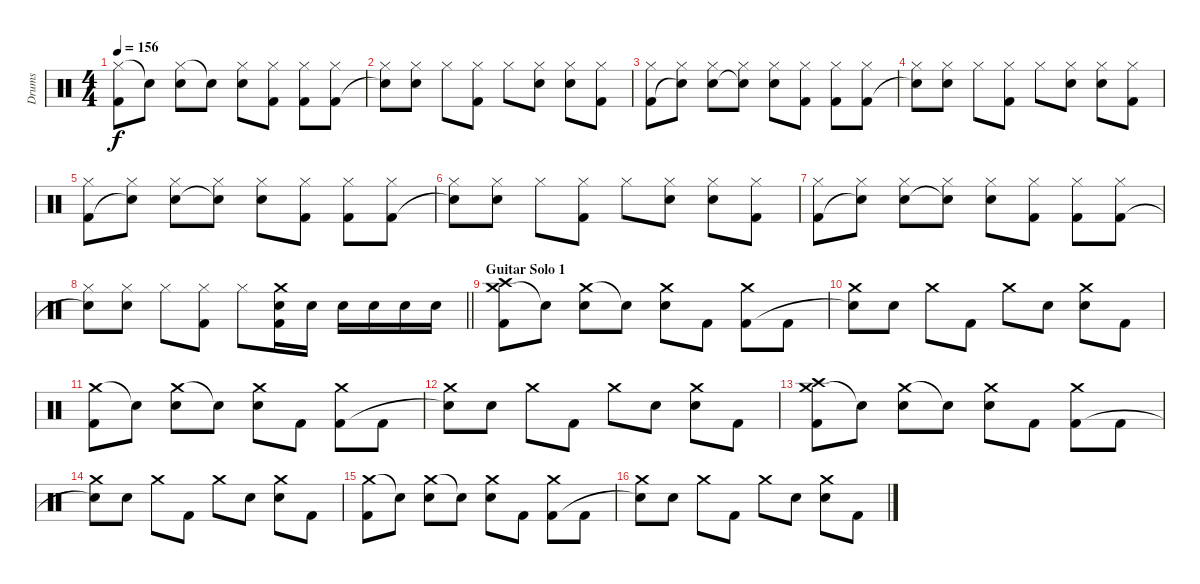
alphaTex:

\track ("Drums" "Drums") {instrument percussion}
\staff {score}
\articulation defaults
\ts (4 4)
\tempo 156
\clef neutral
\ks c
("Hi-Hat (closed)" "Kick (hit) 2").8{dy f} "Snare (hit)"{t}.8 ("Hi-Hat (closed)" "Electric Snare (hit)").8 "Snare (hit)"{t}.8 ("Hi-Hat (closed)" "Electric Snare (hit)").8 ("Hi-Hat (closed)" "Kick (hit) 2").8 ("Hi-Hat (closed)" "Kick (hit) 2").8 ("Hi-Hat (closed)" "Kick (hit) 2").8 |
("Hi-Hat (closed)" "Snare (hit)"{t}).8 ("Hi-Hat (closed)" "Electric Snare (hit)").8 "Hi-Hat (closed)".8 ("Hi-Hat (closed)" "Kick (hit) 2").8 "Hi-Hat (closed)".8 ("Hi-Hat (closed)" "Electric Snare (hit)").8 ("Hi-Hat (closed)" "Electric Snare (hit)").8 ("Hi-Hat (closed)" "Kick (hit) 2").8 |
("Hi-Hat (closed)" "Kick (hit) 2").8 ("Hi-Hat (closed)" "Snare (hit)"{t}).8 ("Hi-Hat (closed)" "Electric Snare (hit)").8 ("Hi-Hat (closed)" "Snare (hit)"{t}).8 ("Hi-Hat (closed)" "Electric Snare (hit)").8 ("Hi-Hat (closed)" "Kick (hit) 2").8 ("Hi-Hat (closed)" "Kick (hit) 2").8 ("Hi-Hat (closed)" "Kick (hit) 2").8 |
("Hi-Hat (closed)" "Snare (hit)"{t}).8 ("Hi-Hat (closed)" "Electric Snare (hit)").8 "Hi-Hat (closed)".8 ("Hi-Hat (closed)" "Kick (hit) 2").8 "Hi-Hat (closed)".8 ("Hi-Hat (closed)" "Electric Snare (hit)").8 ("Hi-Hat (closed)" "Electric Snare (hit)").8 ("Hi-Hat (closed)" "Kick (hit) 2").8 |
("Hi-Hat (closed)" "Kick (hit) 2").8 ("Hi-Hat (closed)" "Snare (hit)"{t}).8 ("Hi-Hat (closed)" "Electric Snare (hit)").8 ("Hi-Hat (closed)" "Snare (hit)"{t}).8 ("Hi-Hat (closed)" "Electric Snare (hit)").8 ("Hi-Hat (closed)" "Kick (hit) 2").8 ("Hi-Hat (closed)" "Kick (hit) 2").8 ("Hi-Hat (closed)" "Kick (hit) 2").8 |
("Hi-Hat (closed)" "Snare (hit)"{t}).8 ("Hi-Hat (closed)" "Electric Snare (hit)").8 "Hi-Hat (closed)".8 ("Hi-Hat (closed)" "Kick (hit) 2").8 "Hi-Hat (closed)".8 ("Hi-Hat (closed)" "Electric Snare (hit)").8 ("Hi-Hat (closed)" "Electric Snare (hit)").8 ("Hi-Hat (closed)" "Kick (hit) 2").8 |
("Hi-Hat (closed)" "Kick (hit) 2").8 ("Hi-Hat (closed)" "Snare (hit)"{t}).8 ("Hi-Hat (closed)" "Electric Snare (hit)").8 ("Hi-Hat (closed)" "Snare (hit)"{t}).8 ("Hi-Hat (closed)" "Electric Snare (hit)").8 ("Hi-Hat (closed)" "Kick (hit) 2").8 ("Hi-Hat (closed)" "Kick (hit) 2").8 ("Hi-Hat (closed)" "Kick (hit) 2").8 |
\barLineRight lightlight
("Hi-Hat (closed)" "Snare (hit)"{t}).8 ("Hi-Hat (closed)" "Electric Snare (hit)").8 "Hi-Hat (closed)".8 ("Hi-Hat (closed)" "Kick (hit) 2").8 "Hi-Hat (closed)".8 ("Crash medium (hit)" "Electric Snare (hit)" "Kick (hit) 2").16 "Electric Snare (hit)".16 "Electric Snare (hit)".16 "Electric Snare (hit)".16 "Electric Snare (hit)".16 "Electric Snare (hit)".16 |
\section ("" "Guitar Solo 1")
("Crash medium (hit)" "Crash high (hit)" "Kick (hit) 2").8 "Snare (hit)"{t}.8 ("Crash medium (hit)" "Electric Snare (hit)").8 "Snare (hit)"{t}.8 ("Crash medium (hit)" "Electric Snare (hit)").8 "Kick (hit) 2".8 ("Crash medium (hit)" "Kick (hit) 2").8 "Kick (hit) 2".8 |
("Crash medium (hit)" "Snare (hit)"{t}).8 "Electric Snare (hit)".8 "Crash medium (hit)".8 "Kick (hit) 2".8 "Crash medium (hit)".8 "Electric Snare (hit)".8 ("Crash medium (hit)" "Electric Snare (hit)").8 "Kick (hit) 2".8 |
("Crash medium (hit)" "Kick (hit) 2").8 "Snare (hit)"{t}.8 ("Crash medium (hit)" "Electric Snare (hit)").8 "Snare (hit)"{t}.8 ("Crash medium (hit)" "Electric Snare (hit)").8 "Kick (hit) 2".8 ("Crash medium (hit)" "Kick (hit) 2").8 "Kick (hit) 2".8 |
("Crash medium (hit)" "Snare (hit)"{t}).8 "Electric Snare (hit)".8 "Crash medium (hit)".8 "Kick (hit) 2".8 "Crash medium (hit)".8 "Electric Snare (hit)".8 ("Crash medium (hit)" "Electric Snare (hit)").8 "Kick (hit) 2".8 |
("Crash medium (hit)" "Crash high (hit)" "Kick (hit) 2").8 "Snare (hit)"{t}.8 ("Crash medium (hit)" "Electric Snare (hit)").8 "Snare (hit)"{t}.8 ("Crash medium (hit)" "Electric Snare (hit)").8 "Kick (hit) 2".8 ("Crash medium (hit)" "Kick (hit) 2").8 "Kick (hit) 2".8 |
("Crash medium (hit)" "Snare (hit)"{t}).8 "Electric Snare (hit)".8 "Crash medium (hit)".8 "Kick (hit) 2".8 "Crash medium (hit)".8 "Electric Snare (hit)".8 ("Crash medium (hit)" "Electric Snare (hit)").8 "Kick (hit) 2".8 |
("Crash medium (hit)" "Kick (hit) 2").8 "Snare (hit)"{t}.8 ("Crash medium (hit)" "Electric Snare (hit)").8 "Snare (hit)"{t}.8 ("Crash medium (hit)" "Electric Snare (hit)").8 "Kick (hit) 2".8 ("Crash medium (hit)" "Kick (hit) 2").8 "Kick (hit) 2".8 |
("Crash medium (hit)" "Snare (hit)"{t}).8 "Electric Snare (hit)".8 "Crash medium (hit)".8 "Kick (hit) 2".8 "Crash medium (hit)".8 "Electric Snare (hit)".8 ("Crash medium (hit)" "Electric Snare (hit)").8 "Kick (hit) 2".8
